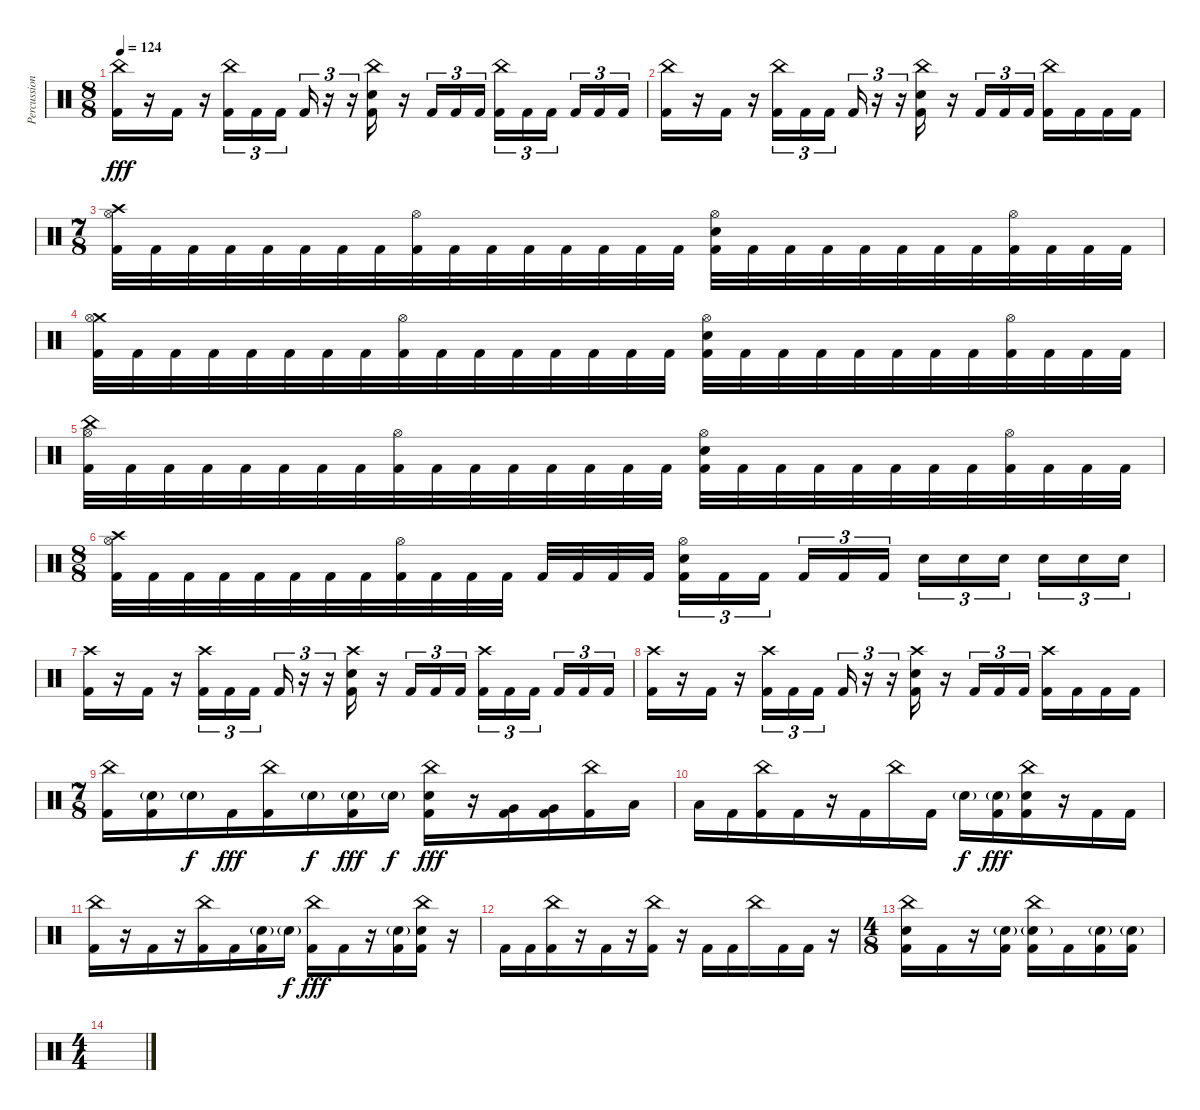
\track ("Percussion" "Percussion") {instrument percussion}
\staff {score}
\articulation defaults
\ts (8 8)
\tempo 124
\clef neutral
\ks c
("China (hit)" "Kick (hit) 2").16{dy fff} r.16 "Kick (hit) 2".16 r.16 ("China (hit)" "Kick (hit) 2").16{tu (3 2)} "Kick (hit) 2".16{tu (3 2)} "Kick (hit) 2".16{tu (3 2)} "Kick (hit) 2".16{tu (3 2)} r.16{tu (3 2)} r.16{tu (3 2)} ("China (hit)" "Snare (hit) 2" "Kick (hit) 2").16 r.16 "Kick (hit) 2".16{tu (3 2)} "Kick (hit) 2".16{tu (3 2)} "Kick (hit) 2".16{tu (3 2)} ("China (hit)" "Kick (hit) 2").16{tu (3 2)} "Kick (hit) 2".16{tu (3 2)} "Kick (hit) 2".16{tu (3 2)} "Kick (hit) 2".16{tu (3 2)} "Kick (hit) 2".16{tu (3 2)} "Kick (hit) 2".16{tu (3 2)} |
("China (hit)" "Kick (hit) 2").16 r.16 "Kick (hit) 2".16 r.16 ("China (hit)" "Kick (hit) 2").16{tu (3 2)} "Kick (hit) 2".16{tu (3 2)} "Kick (hit) 2".16{tu (3 2)} "Kick (hit) 2".16{tu (3 2)} r.16{tu (3 2)} r.16{tu (3 2)} ("China (hit)" "Snare (hit) 2" "Kick (hit) 2").16 r.16 "Kick (hit) 2".16{tu (3 2)} "Kick (hit) 2".16{tu (3 2)} "Kick (hit) 2".16{tu (3 2)} ("China (hit)" "Kick (hit) 2").16 "Kick (hit) 2".16 "Kick (hit) 2".16 "Kick (hit) 2".16 |
\ts (7 8)
("Crash high (hit)" "Hi-Hat (open)" "Kick (hit) 2").32 "Kick (hit) 2".32 "Kick (hit) 2".32 "Kick (hit) 2".32 "Kick (hit) 2".32 "Kick (hit) 2".32 "Kick (hit) 2".32 "Kick (hit) 2".32 ("Hi-Hat (open)" "Kick (hit) 2").32 "Kick (hit) 2".32 "Kick (hit) 2".32 "Kick (hit) 2".32 "Kick (hit) 2".32 "Kick (hit) 2".32 "Kick (hit) 2".32 "Kick (hit) 2".32 ("Hi-Hat (open)" "Snare (hit) 2" "Kick (hit) 2").32 "Kick (hit) 2".32 "Kick (hit) 2".32 "Kick (hit) 2".32 "Kick (hit) 2".32 "Kick (hit) 2".32 "Kick (hit) 2".32 "Kick (hit) 2".32 ("Hi-Hat (open)" "Kick (hit) 2").32 "Kick (hit) 2".32 "Kick (hit) 2".32 "Kick (hit) 2".32 |
("Crash medium (hit)" "Hi-Hat (open)" "Kick (hit) 2").32 "Kick (hit) 2".32 "Kick (hit) 2".32 "Kick (hit) 2".32 "Kick (hit) 2".32 "Kick (hit) 2".32 "Kick (hit) 2".32 "Kick (hit) 2".32 ("Hi-Hat (open)" "Kick (hit) 2").32 "Kick (hit) 2".32 "Kick (hit) 2".32 "Kick (hit) 2".32 "Kick (hit) 2".32 "Kick (hit) 2".32 "Kick (hit) 2".32 "Kick (hit) 2".32 ("Hi-Hat (open)" "Snare (hit) 2" "Kick (hit) 2").32 "Kick (hit) 2".32 "Kick (hit) 2".32 "Kick (hit) 2".32 "Kick (hit) 2".32 "Kick (hit) 2".32 "Kick (hit) 2".32 "Kick (hit) 2".32 ("Hi-Hat (open)" "Kick (hit) 2").32 "Kick (hit) 2".32 "Kick (hit) 2".32 "Kick (hit) 2".32 |
("China (hit)" "Hi-Hat (open)" "Kick (hit) 2").32 "Kick (hit) 2".32 "Kick (hit) 2".32 "Kick (hit) 2".32 "Kick (hit) 2".32 "Kick (hit) 2".32 "Kick (hit) 2".32 "Kick (hit) 2".32 ("Hi-Hat (open)" "Kick (hit) 2").32 "Kick (hit) 2".32 "Kick (hit) 2".32 "Kick (hit) 2".32 "Kick (hit) 2".32 "Kick (hit) 2".32 "Kick (hit) 2".32 "Kick (hit) 2".32 ("Hi-Hat (open)" "Snare (hit) 2" "Kick (hit) 2").32 "Kick (hit) 2".32 "Kick (hit) 2".32 "Kick (hit) 2".32 "Kick (hit) 2".32 "Kick (hit) 2".32 "Kick (hit) 2".32 "Kick (hit) 2".32 ("Hi-Hat (open)" "Kick (hit) 2").32 "Kick (hit) 2".32 "Kick (hit) 2".32 "Kick (hit) 2".32 |
\ts (8 8)
("Crash high (hit)" "Hi-Hat (open)" "Kick (hit) 2").32 "Kick (hit) 2".32 "Kick (hit) 2".32 "Kick (hit) 2".32 "Kick (hit) 2".32 "Kick (hit) 2".32 "Kick (hit) 2".32 "Kick (hit) 2".32 ("Hi-Hat (open)" "Kick (hit) 2").32 "Kick (hit) 2".32 "Kick (hit) 2".32 "Kick (hit) 2".32 "Kick (hit) 2".32 "Kick (hit) 2".32 "Kick (hit) 2".32 "Kick (hit) 2".32 ("Hi-Hat (open)" "Snare (hit) 2" "Kick (hit) 2").16{tu (3 2)} "Kick (hit) 2".16{tu (3 2)} "Kick (hit) 2".16{tu (3 2)} "Kick (hit) 2".16{tu (3 2)} "Kick (hit) 2".16{tu (3 2)} "Kick (hit) 2".16{tu (3 2)} "Snare (hit) 2".16{tu (3 2)} "Snare (hit) 2".16{tu (3 2)} "Snare (hit) 2".16{tu (3 2)} "Snare (hit) 2".16{tu (3 2)} "Snare (hit) 2".16{tu (3 2)} "Snare (hit) 2".16{tu (3 2)} |
("Crash high (hit)" "Kick (hit) 2").16 r.16 "Kick (hit) 2".16 r.16 ("Crash high (hit)" "Kick (hit) 2").16{tu (3 2)} "Kick (hit) 2".16{tu (3 2)} "Kick (hit) 2".16{tu (3 2)} "Kick (hit) 2".16{tu (3 2)} r.16{tu (3 2)} r.16{tu (3 2)} ("Crash high (hit)" "Snare (hit) 2" "Kick (hit) 2").16 r.16 "Kick (hit) 2".16{tu (3 2)} "Kick (hit) 2".16{tu (3 2)} "Kick (hit) 2".16{tu (3 2)} ("Crash high (hit)" "Kick (hit) 2").16{tu (3 2)} "Kick (hit) 2".16{tu (3 2)} "Kick (hit) 2".16{tu (3 2)} "Kick (hit) 2".16{tu (3 2)} "Kick (hit) 2".16{tu (3 2)} "Kick (hit) 2".16{tu (3 2)} |
("Crash high (hit)" "Kick (hit) 2").16 r.16 "Kick (hit) 2".16 r.16 ("Crash high (hit)" "Kick (hit) 2").16{tu (3 2)} "Kick (hit) 2".16{tu (3 2)} "Kick (hit) 2".16{tu (3 2)} "Kick (hit) 2".16{tu (3 2)} r.16{tu (3 2)} r.16{tu (3 2)} ("Crash high (hit)" "Snare (hit) 2" "Kick (hit) 2").16 r.16 "Kick (hit) 2".16{tu (3 2)} "Kick (hit) 2".16{tu (3 2)} "Kick (hit) 2".16{tu (3 2)} ("Crash high (hit)" "Kick (hit) 2").16 "Kick (hit) 2".16 "Kick (hit) 2".16 "Kick (hit) 2".16 |
\ts (7 8)
("China (hit)" "Kick (hit) 2").16 ("Snare (hit) 2"{g} "Kick (hit) 2").16 "Snare (hit) 2"{g}.16{dy f} "Kick (hit) 2".16{dy fff} ("China (hit)" "Kick (hit) 2").16 "Snare (hit) 2"{g}.16{dy f} ("Snare (hit) 2"{g} "Kick (hit) 2").16{dy fff} "Snare (hit) 2"{g}.16{dy f} ("China (hit)" "Snare (hit) 2" "Kick (hit) 2").16{dy fff} r.16 ("Very Low Tom (hit)" "Kick (hit) 2").16 ("Very Low Tom (hit)" "Kick (hit) 2").16 ("China (hit)" "Kick (hit) 2").16 "Low Floor Tom (hit)".16 |
"Low Floor Tom (hit)".16 "Kick (hit) 2".16 ("China (hit)" "Kick (hit) 2").16 "Kick (hit) 2".16 r.16 "Kick (hit) 2".16 "China (hit)".16 "Kick (hit) 2".16 "Snare (hit) 2"{g}.16{dy f} ("Snare (hit) 2"{g} "Kick (hit) 2").16{dy fff} ("China (hit)" "Snare (hit) 2" "Kick (hit) 2").16 r.16 "Kick (hit) 2".16 "Kick (hit) 2".16 |
("China (hit)" "Kick (hit) 2").16 r.16 "Kick (hit) 2".16 r.16 ("China (hit)" "Kick (hit) 2").16 "Kick (hit) 2".16 ("Snare (hit) 2"{g} "Kick (hit) 2").16 "Snare (hit) 2"{g}.16{dy f} ("China (hit)" "Kick (hit) 2").16{dy fff} "Kick (hit) 2".16 r.16 ("Snare (hit) 2"{g} "Kick (hit) 2").16 ("China (hit)" "Snare (hit) 2" "Kick (hit) 2").16 r.16 |
"Kick (hit) 2".16 "Kick (hit) 2".16 ("China (hit)" "Kick (hit) 2").16 r.16 "Kick (hit) 2".16 r.16 ("China (hit)" "Kick (hit) 2").16 r.16 "Kick (hit) 2".16 "Kick (hit) 2".16 "China (hit)".16 "Kick (hit) 2".16 "Kick (hit) 2".16 r.16 |
\ts (4 8)
("China (hit)" "Snare (hit) 2" "Kick (hit) 2").16 "Kick (hit) 2".16 r.16 ("Snare (hit) 2"{g} "Kick (hit) 2").16 ("China (hit)" "Snare (hit) 2"{g} "Kick (hit) 2").16 "Kick (hit) 2".16 ("Snare (hit) 2"{g} "Kick (hit) 2").16 ("Snare (hit) 2"{g} "Kick (hit) 2").16 |
\ts (4 4)
